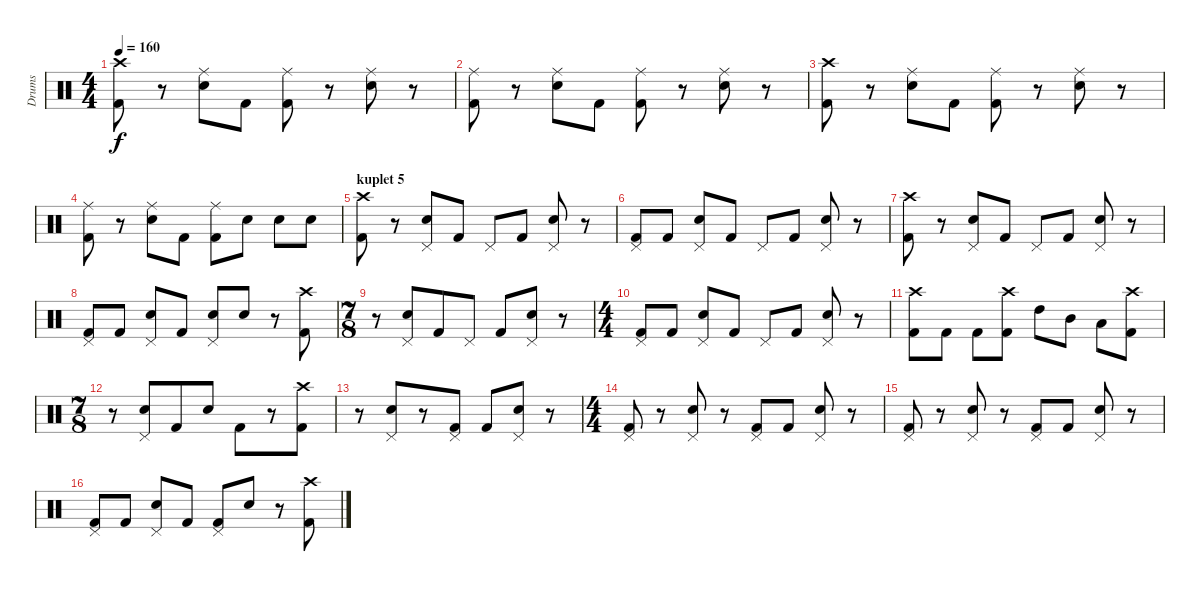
\track ("Drums" "Drums") {instrument percussion}
\staff {score}
\articulation defaults
\ts (4 4)
\tempo 160
\clef neutral
\ks c
("Kick (hit) 2" "Crash high (hit)").8{dy f} r.8 ("Snare (hit) 2" "Ride (middle)").8 "Kick (hit) 2".8 ("Kick (hit) 2" "Ride (middle)").8 r.8 ("Snare (hit) 2" "Ride (middle)").8 r.8 |
("Kick (hit) 2" "Ride (middle)").8 r.8 ("Snare (hit) 2" "Ride (middle)").8 "Kick (hit) 2".8 ("Kick (hit) 2" "Ride (middle)").8 r.8 ("Snare (hit) 2" "Ride (middle)").8 r.8 |
("Kick (hit) 2" "Crash high (hit)").8 r.8 ("Snare (hit) 2" "Ride (middle)").8 "Kick (hit) 2".8 ("Kick (hit) 2" "Ride (middle)").8 r.8 ("Snare (hit) 2" "Ride (middle)").8 r.8 |
("Kick (hit) 2" "Ride (middle)").8 r.8 ("Snare (hit) 2" "Ride (middle)").8 "Kick (hit) 2".8 ("Kick (hit) 2" "Ride (middle)").8 "Snare (hit) 2".8 "Snare (hit) 2".8 "Snare (hit) 2".8 |
\section ("" "kuplet 5")
("Kick (hit) 2" "Crash high (hit)").8 r.8 ("Snare (hit) 2" "Pedal Hi-Hat (hit)").8 "Kick (hit) 2".8 "Pedal Hi-Hat (hit)".8 "Kick (hit) 2".8 ("Snare (hit) 2" "Pedal Hi-Hat (hit)").8 r.8 |
("Kick (hit) 2" "Pedal Hi-Hat (hit)").8 "Kick (hit) 2".8 ("Snare (hit) 2" "Pedal Hi-Hat (hit)").8 "Kick (hit) 2".8 "Pedal Hi-Hat (hit)".8 "Kick (hit) 2".8 ("Snare (hit) 2" "Pedal Hi-Hat (hit)").8 r.8 |
("Kick (hit) 2" "Crash high (hit)").8 r.8 ("Snare (hit) 2" "Pedal Hi-Hat (hit)").8 "Kick (hit) 2".8 "Pedal Hi-Hat (hit)".8 "Kick (hit) 2".8 ("Snare (hit) 2" "Pedal Hi-Hat (hit)").8 r.8 |
("Kick (hit) 2" "Pedal Hi-Hat (hit)").8 "Kick (hit) 2".8 ("Snare (hit) 2" "Pedal Hi-Hat (hit)").8 "Kick (hit) 2".8 ("Snare (hit) 2" "Pedal Hi-Hat (hit)").8 "Snare (hit) 2".8 r.8 ("Kick (hit) 2" "Crash high (hit)").8 |
\ts (7 8)
r.8 ("Snare (hit) 2" "Pedal Hi-Hat (hit)").8 "Kick (hit) 2".8 "Pedal Hi-Hat (hit)".8 "Kick (hit) 2".8 ("Snare (hit) 2" "Pedal Hi-Hat (hit)").8 r.8 |
\ts (4 4)
("Kick (hit) 2" "Pedal Hi-Hat (hit)").8 "Kick (hit) 2".8 ("Snare (hit) 2" "Pedal Hi-Hat (hit)").8 "Kick (hit) 2".8 "Pedal Hi-Hat (hit)".8 "Kick (hit) 2".8 ("Snare (hit) 2" "Pedal Hi-Hat (hit)").8 r.8 |
("Kick (hit) 2" "Crash high (hit)").8 "Kick (hit) 2".8 "Kick (hit) 2".8 ("Kick (hit) 2" "Crash high (hit)").8 "High Tom (hit)".8 "Mid Tom (hit)".8 "Low Tom (hit)".8 ("Kick (hit) 2" "Crash high (hit)").8 |
\ts (7 8)
r.8 ("Snare (hit) 2" "Pedal Hi-Hat (hit)").8 "Kick (hit) 2".8 "Snare (hit) 2".8 "Kick (hit) 2".8 r.8 ("Kick (hit) 2" "Crash high (hit)").8 |
r.8 ("Snare (hit) 2" "Pedal Hi-Hat (hit)").8 r.8 ("Kick (hit) 2" "Pedal Hi-Hat (hit)").8 "Kick (hit) 2".8 ("Snare (hit) 2" "Pedal Hi-Hat (hit)").8 r.8 |
\ts (4 4)
("Kick (hit) 2" "Pedal Hi-Hat (hit)").8 r.8 ("Snare (hit) 2" "Pedal Hi-Hat (hit)").8 r.8 ("Kick (hit) 2" "Pedal Hi-Hat (hit)").8 "Kick (hit) 2".8 ("Snare (hit) 2" "Pedal Hi-Hat (hit)").8 r.8 |
("Kick (hit) 2" "Pedal Hi-Hat (hit)").8 r.8 ("Snare (hit) 2" "Pedal Hi-Hat (hit)").8 r.8 ("Kick (hit) 2" "Pedal Hi-Hat (hit)").8 "Kick (hit) 2".8 ("Snare (hit) 2" "Pedal Hi-Hat (hit)").8 r.8 |
("Kick (hit) 2" "Pedal Hi-Hat (hit)").8 "Kick (hit) 2".8 ("Snare (hit) 2" "Pedal Hi-Hat (hit)").8 "Kick (hit) 2".8 ("Kick (hit) 2" "Pedal Hi-Hat (hit)").8 "Snare (hit) 2".8 r.8 ("Kick (hit) 2" "Crash high (hit)").8
